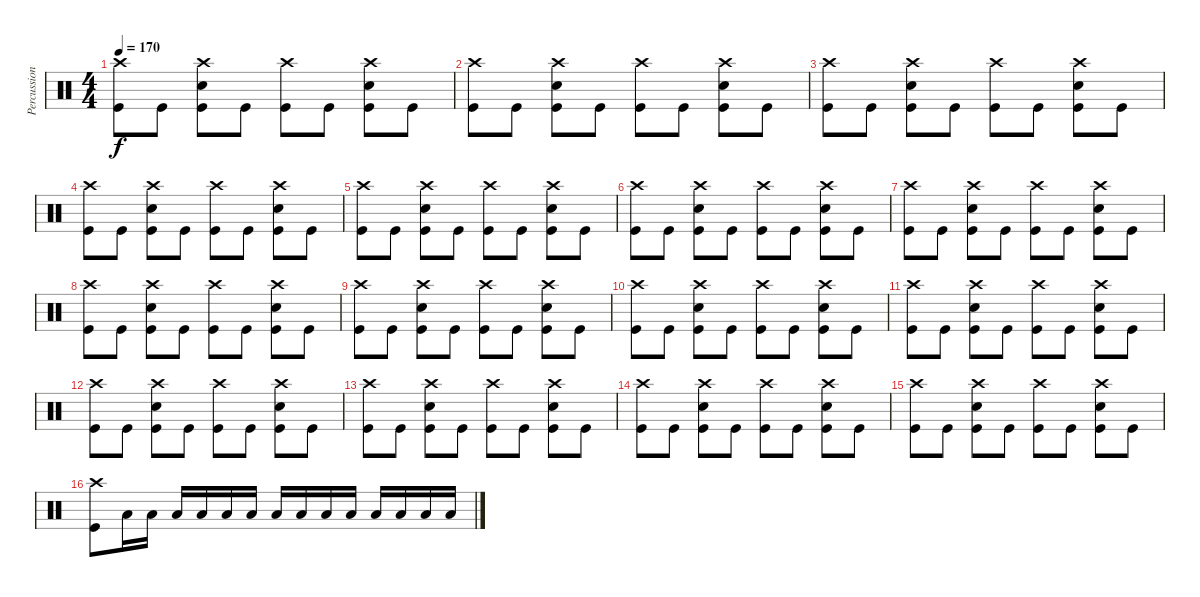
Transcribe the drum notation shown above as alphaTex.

\track ("Percussion" "Percussion") {instrument percussion}
\staff {score}
\articulation defaults
\ts (4 4)
\tempo 170
\clef neutral
\ks c
("Crash high (hit)" "Kick (hit)").8{dy f} "Kick (hit)".8 ("Snare (hit) 2" "Crash high (hit)" "Kick (hit)").8 "Kick (hit)".8 ("Crash high (hit)" "Kick (hit)").8 "Kick (hit)".8 ("Snare (hit) 2" "Crash high (hit)" "Kick (hit)").8 "Kick (hit)".8 |
("Crash high (hit)" "Kick (hit)").8 "Kick (hit)".8 ("Snare (hit) 2" "Crash high (hit)" "Kick (hit)").8 "Kick (hit)".8 ("Crash high (hit)" "Kick (hit)").8 "Kick (hit)".8 ("Snare (hit) 2" "Crash high (hit)" "Kick (hit)").8 "Kick (hit)".8 |
("Crash high (hit)" "Kick (hit)").8 "Kick (hit)".8 ("Snare (hit) 2" "Crash high (hit)" "Kick (hit)").8 "Kick (hit)".8 ("Crash high (hit)" "Kick (hit)").8 "Kick (hit)".8 ("Snare (hit) 2" "Crash high (hit)" "Kick (hit)").8 "Kick (hit)".8 |
("Crash high (hit)" "Kick (hit)").8 "Kick (hit)".8 ("Snare (hit) 2" "Crash high (hit)" "Kick (hit)").8 "Kick (hit)".8 ("Crash high (hit)" "Kick (hit)").8 "Kick (hit)".8 ("Snare (hit) 2" "Crash high (hit)" "Kick (hit)").8 "Kick (hit)".8 |
("Crash high (hit)" "Kick (hit)").8 "Kick (hit)".8 ("Snare (hit) 2" "Crash high (hit)" "Kick (hit)").8 "Kick (hit)".8 ("Crash high (hit)" "Kick (hit)").8 "Kick (hit)".8 ("Snare (hit) 2" "Crash high (hit)" "Kick (hit)").8 "Kick (hit)".8 |
("Crash high (hit)" "Kick (hit)").8 "Kick (hit)".8 ("Snare (hit) 2" "Crash high (hit)" "Kick (hit)").8 "Kick (hit)".8 ("Crash high (hit)" "Kick (hit)").8 "Kick (hit)".8 ("Snare (hit) 2" "Crash high (hit)" "Kick (hit)").8 "Kick (hit)".8 |
("Crash high (hit)" "Kick (hit)").8 "Kick (hit)".8 ("Snare (hit) 2" "Crash high (hit)" "Kick (hit)").8 "Kick (hit)".8 ("Crash high (hit)" "Kick (hit)").8 "Kick (hit)".8 ("Snare (hit) 2" "Crash high (hit)" "Kick (hit)").8 "Kick (hit)".8 |
("Crash high (hit)" "Kick (hit)").8 "Kick (hit)".8 ("Snare (hit) 2" "Crash high (hit)" "Kick (hit)").8 "Kick (hit)".8 ("Crash high (hit)" "Kick (hit)").8 "Kick (hit)".8 ("Snare (hit) 2" "Crash high (hit)" "Kick (hit)").8 "Kick (hit)".8 |
("Crash high (hit)" "Kick (hit)").8 "Kick (hit)".8 ("Snare (hit) 2" "Crash high (hit)" "Kick (hit)").8 "Kick (hit)".8 ("Crash high (hit)" "Kick (hit)").8 "Kick (hit)".8 ("Snare (hit) 2" "Crash high (hit)" "Kick (hit)").8 "Kick (hit)".8 |
("Crash high (hit)" "Kick (hit)").8 "Kick (hit)".8 ("Snare (hit) 2" "Crash high (hit)" "Kick (hit)").8 "Kick (hit)".8 ("Crash high (hit)" "Kick (hit)").8 "Kick (hit)".8 ("Snare (hit) 2" "Crash high (hit)" "Kick (hit)").8 "Kick (hit)".8 |
("Crash high (hit)" "Kick (hit)").8 "Kick (hit)".8 ("Snare (hit) 2" "Crash high (hit)" "Kick (hit)").8 "Kick (hit)".8 ("Crash high (hit)" "Kick (hit)").8 "Kick (hit)".8 ("Snare (hit) 2" "Crash high (hit)" "Kick (hit)").8 "Kick (hit)".8 |
("Crash high (hit)" "Kick (hit)").8 "Kick (hit)".8 ("Snare (hit) 2" "Crash high (hit)" "Kick (hit)").8 "Kick (hit)".8 ("Crash high (hit)" "Kick (hit)").8 "Kick (hit)".8 ("Snare (hit) 2" "Crash high (hit)" "Kick (hit)").8 "Kick (hit)".8 |
("Crash high (hit)" "Kick (hit)").8 "Kick (hit)".8 ("Snare (hit) 2" "Crash high (hit)" "Kick (hit)").8 "Kick (hit)".8 ("Crash high (hit)" "Kick (hit)").8 "Kick (hit)".8 ("Snare (hit) 2" "Crash high (hit)" "Kick (hit)").8 "Kick (hit)".8 |
("Crash high (hit)" "Kick (hit)").8 "Kick (hit)".8 ("Snare (hit) 2" "Crash high (hit)" "Kick (hit)").8 "Kick (hit)".8 ("Crash high (hit)" "Kick (hit)").8 "Kick (hit)".8 ("Snare (hit) 2" "Crash high (hit)" "Kick (hit)").8 "Kick (hit)".8 |
("Crash high (hit)" "Kick (hit)").8 "Kick (hit)".8 ("Snare (hit) 2" "Crash high (hit)" "Kick (hit)").8 "Kick (hit)".8 ("Crash high (hit)" "Kick (hit)").8 "Kick (hit)".8 ("Snare (hit) 2" "Crash high (hit)" "Kick (hit)").8 "Kick (hit)".8 |
("Crash high (hit)" "Kick (hit)").8 "Low Tom (hit)".16 "Low Tom (hit)".16 "Low Tom (hit)".16 "Low Tom (hit)".16 "Low Tom (hit)".16 "Low Tom (hit)".16 "Low Tom (hit)".16 "Low Tom (hit)".16 "Low Tom (hit)".16 "Low Tom (hit)".16 "Low Tom (hit)".16 "Low Tom (hit)".16 "Low Tom (hit)".16 "Low Tom (hit)".16
